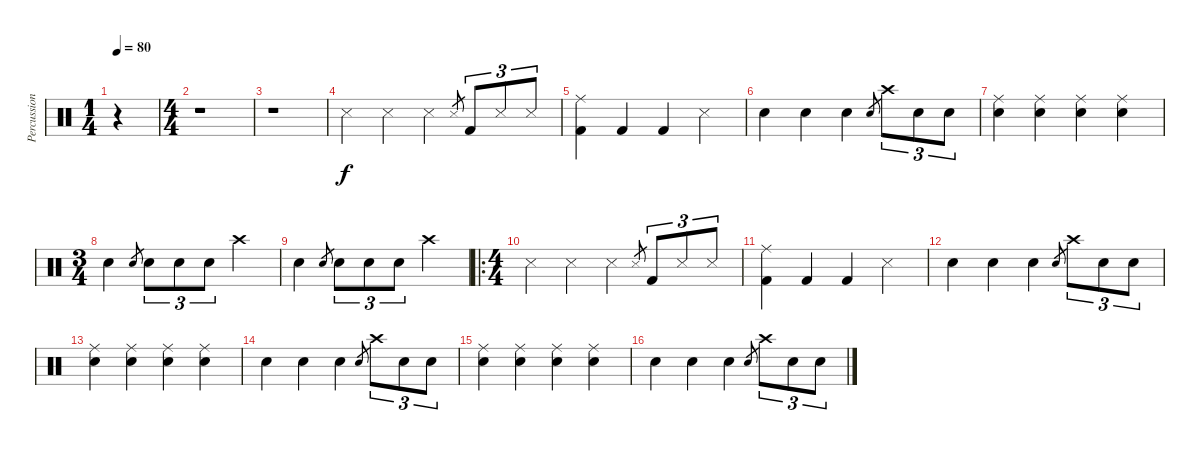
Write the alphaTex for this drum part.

\track ("Percussions" "Percussion") {instrument percussion}
\staff {score}
\articulation defaults
\ts (1 4)
\tempo 80
\clef neutral
\ks c
r.4{dy f} |
\ts (4 4)
r.1 |
r.1 |
"Snare (side stick) 3".4 "Snare (side stick) 3".4 "Snare (side stick) 3".4 "Snare (side stick) 3".8{gr} "Kick (hit) 2".8{tu (3 2)} "Snare (side stick) 3".8{tu (3 2)} "Snare (side stick) 3".8{tu (3 2)} |
("Ride (middle)" "Kick (hit) 2").4 "Kick (hit) 2".4 "Kick (hit) 2".4 "Snare (side stick) 3".4 |
"Snare (hit) 2".4 "Snare (hit) 2".4 "Snare (hit) 2".4 "Snare (hit) 2".8{gr} "Crash high (hit)".8{tu (3 2)} "Electric Snare (hit)".8{tu (3 2)} "Electric Snare (hit)".8{tu (3 2)} |
("Ride (middle)" "Snare (hit) 2").4 ("Ride (middle)" "Snare (hit) 2").4 ("Ride (middle)" "Snare (hit) 2").4 ("Ride (middle)" "Electric Snare (hit)").4 |
\ts (3 4)
"Snare (hit) 2".4 "Electric Snare (hit)".8{gr} "Snare (hit) 2".8{tu (3 2)} "Snare (hit) 2".8{tu (3 2)} "Electric Snare (hit)".8{tu (3 2)} "Crash high (hit)".4 |
"Snare (hit) 2".4 "Electric Snare (hit)".8{gr} "Snare (hit) 2".8{tu (3 2)} "Snare (hit) 2".8{tu (3 2)} "Electric Snare (hit)".8{tu (3 2)} "Crash high (hit)".4 |
\ro
\ts (4 4)
"Snare (side stick) 3".4 "Snare (side stick) 3".4 "Snare (side stick) 3".4 "Snare (side stick) 3".8{gr} "Kick (hit) 2".8{tu (3 2)} "Snare (side stick) 3".8{tu (3 2)} "Snare (side stick) 3".8{tu (3 2)} |
("Ride (middle)" "Kick (hit) 2").4 "Kick (hit) 2".4 "Kick (hit) 2".4 "Snare (side stick) 3".4 |
"Snare (hit) 2".4 "Snare (hit) 2".4 "Snare (hit) 2".4 "Snare (hit) 2".8{gr} "Crash high (hit)".8{tu (3 2)} "Electric Snare (hit)".8{tu (3 2)} "Electric Snare (hit)".8{tu (3 2)} |
("Ride (middle)" "Snare (hit) 2").4 ("Ride (middle)" "Snare (hit) 2").4 ("Ride (middle)" "Snare (hit) 2").4 ("Ride (middle)" "Electric Snare (hit)").4 |
"Snare (hit) 2".4 "Snare (hit) 2".4 "Snare (hit) 2".4 "Snare (hit) 2".8{gr} "Crash high (hit)".8{tu (3 2)} "Electric Snare (hit)".8{tu (3 2)} "Electric Snare (hit)".8{tu (3 2)} |
("Ride (middle)" "Snare (hit) 2").4 ("Ride (middle)" "Snare (hit) 2").4 ("Ride (middle)" "Snare (hit) 2").4 ("Ride (middle)" "Electric Snare (hit)").4 |
"Snare (hit) 2".4 "Snare (hit) 2".4 "Snare (hit) 2".4 "Snare (hit) 2".8{gr} "Crash high (hit)".8{tu (3 2)} "Electric Snare (hit)".8{tu (3 2)} "Electric Snare (hit)".8{tu (3 2)}
